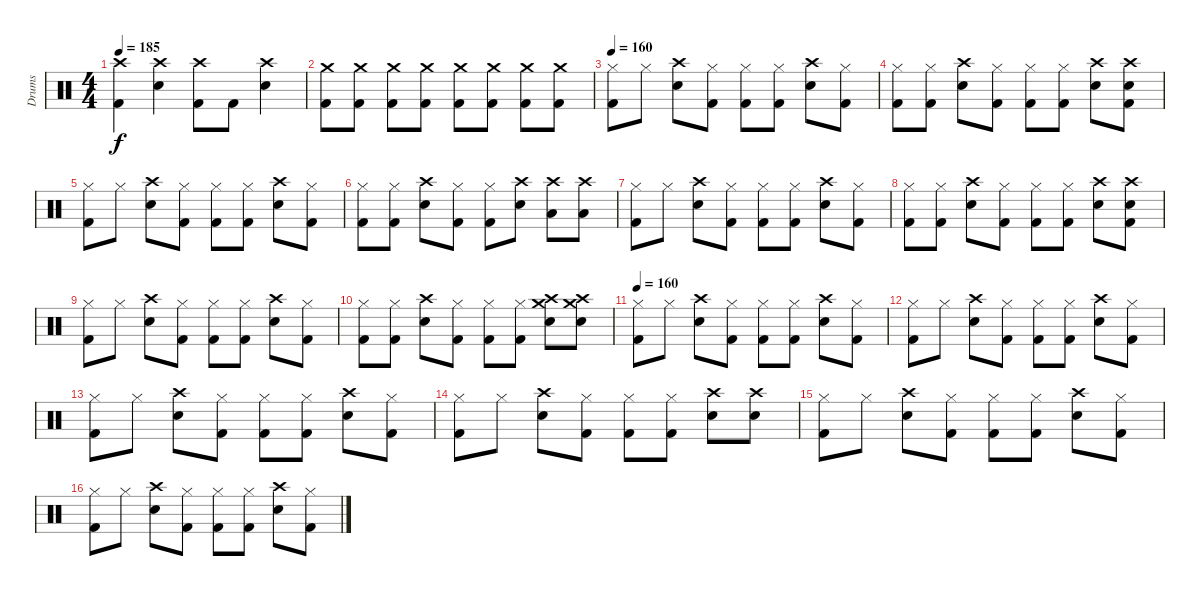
\track ("Drums" "Drums") {instrument percussion}
\staff {score}
\articulation defaults
\ts (4 4)
\tempo 185
\clef neutral
\ks c
("Crash high (hit)" "Kick (hit) 2").4{dy f} ("Crash high (hit)" "Electric Snare (hit)").4 ("Crash high (hit)" "Kick (hit) 2").8 "Kick (hit) 2".8 ("Crash high (hit)" "Electric Snare (hit)").4 |
("Crash medium (hit)" "Kick (hit) 2").8 ("Crash medium (hit)" "Kick (hit) 2").8 ("Crash medium (hit)" "Kick (hit) 2").8 ("Crash medium (hit)" "Kick (hit) 2").8 ("Crash medium (hit)" "Kick (hit) 2").8 ("Crash medium (hit)" "Kick (hit) 2").8 ("Crash medium (hit)" "Kick (hit) 2").8 ("Crash medium (hit)" "Kick (hit) 2").8 |
\tempo 160
("Hi-Hat (closed)" "Kick (hit) 2").8 "Hi-Hat (closed)".8 ("Crash high (hit)" "Electric Snare (hit)").8 ("Hi-Hat (closed)" "Kick (hit) 2").8 ("Hi-Hat (closed)" "Kick (hit) 2").8 ("Hi-Hat (closed)" "Kick (hit) 2").8 ("Crash high (hit)" "Electric Snare (hit)").8 ("Hi-Hat (closed)" "Kick (hit) 2").8 |
("Hi-Hat (closed)" "Kick (hit) 2").8 ("Hi-Hat (closed)" "Kick (hit) 2").8 ("Crash high (hit)" "Electric Snare (hit)").8 ("Hi-Hat (closed)" "Kick (hit) 2").8 ("Hi-Hat (closed)" "Kick (hit) 2").8 ("Hi-Hat (closed)" "Kick (hit) 2").8 ("Crash high (hit)" "Electric Snare (hit)").8 ("Crash high (hit)" "Electric Snare (hit)" "Kick (hit) 2").8 |
("Hi-Hat (closed)" "Kick (hit) 2").8 "Hi-Hat (closed)".8 ("Crash high (hit)" "Electric Snare (hit)").8 ("Hi-Hat (closed)" "Kick (hit) 2").8 ("Hi-Hat (closed)" "Kick (hit) 2").8 ("Hi-Hat (closed)" "Kick (hit) 2").8 ("Crash high (hit)" "Electric Snare (hit)").8 ("Hi-Hat (closed)" "Kick (hit) 2").8 |
("Hi-Hat (closed)" "Kick (hit) 2").8 ("Hi-Hat (closed)" "Kick (hit) 2").8 ("Crash high (hit)" "Electric Snare (hit)").8 ("Hi-Hat (closed)" "Kick (hit) 2").8 ("Hi-Hat (closed)" "Kick (hit) 2").8 ("Crash high (hit)" "Electric Snare (hit)").8 ("Crash high (hit)" "Low Tom (hit)").8 ("Crash high (hit)" "Low Floor Tom (hit)").8 |
("Hi-Hat (closed)" "Kick (hit) 2").8 "Hi-Hat (closed)".8 ("Crash high (hit)" "Electric Snare (hit)").8 ("Hi-Hat (closed)" "Kick (hit) 2").8 ("Hi-Hat (closed)" "Kick (hit) 2").8 ("Hi-Hat (closed)" "Kick (hit) 2").8 ("Crash high (hit)" "Electric Snare (hit)").8 ("Hi-Hat (closed)" "Kick (hit) 2").8 |
("Hi-Hat (closed)" "Kick (hit) 2").8 ("Hi-Hat (closed)" "Kick (hit) 2").8 ("Crash high (hit)" "Electric Snare (hit)").8 ("Hi-Hat (closed)" "Kick (hit) 2").8 ("Hi-Hat (closed)" "Kick (hit) 2").8 ("Hi-Hat (closed)" "Kick (hit) 2").8 ("Crash high (hit)" "Electric Snare (hit)").8 ("Crash high (hit)" "Electric Snare (hit)" "Kick (hit) 2").8 |
("Hi-Hat (closed)" "Kick (hit) 2").8 "Hi-Hat (closed)".8 ("Crash high (hit)" "Electric Snare (hit)").8 ("Hi-Hat (closed)" "Kick (hit) 2").8 ("Hi-Hat (closed)" "Kick (hit) 2").8 ("Hi-Hat (closed)" "Kick (hit) 2").8 ("Crash high (hit)" "Electric Snare (hit)").8 ("Hi-Hat (closed)" "Kick (hit) 2").8 |
("Hi-Hat (closed)" "Kick (hit) 2").8 ("Hi-Hat (closed)" "Kick (hit) 2").8 ("Crash high (hit)" "Electric Snare (hit)").8 ("Hi-Hat (closed)" "Kick (hit) 2").8 ("Hi-Hat (closed)" "Kick (hit) 2").8 ("Hi-Hat (closed)" "Kick (hit) 2").8 ("Crash high (hit)" "Crash medium (hit)" "Electric Snare (hit)").8 ("Crash high (hit)" "Crash medium (hit)" "Electric Snare (hit)").8 |
\tempo 160
("Hi-Hat (closed)" "Kick (hit) 2").8 "Hi-Hat (closed)".8 ("Crash high (hit)" "Electric Snare (hit)").8 ("Hi-Hat (closed)" "Kick (hit) 2").8 ("Hi-Hat (closed)" "Kick (hit) 2").8 ("Hi-Hat (closed)" "Kick (hit) 2").8 ("Crash high (hit)" "Electric Snare (hit)").8 ("Hi-Hat (closed)" "Kick (hit) 2").8 |
("Hi-Hat (closed)" "Kick (hit) 2").8 "Hi-Hat (closed)".8 ("Crash high (hit)" "Electric Snare (hit)").8 ("Hi-Hat (closed)" "Kick (hit) 2").8 ("Hi-Hat (closed)" "Kick (hit) 2").8 ("Hi-Hat (closed)" "Kick (hit) 2").8 ("Crash high (hit)" "Electric Snare (hit)").8 ("Hi-Hat (closed)" "Kick (hit) 2").8 |
("Hi-Hat (closed)" "Kick (hit) 2").8 "Hi-Hat (closed)".8 ("Crash high (hit)" "Electric Snare (hit)").8 ("Hi-Hat (closed)" "Kick (hit) 2").8 ("Hi-Hat (closed)" "Kick (hit) 2").8 ("Hi-Hat (closed)" "Kick (hit) 2").8 ("Crash high (hit)" "Electric Snare (hit)").8 ("Hi-Hat (closed)" "Kick (hit) 2").8 |
("Hi-Hat (closed)" "Kick (hit) 2").8 "Hi-Hat (closed)".8 ("Crash high (hit)" "Electric Snare (hit)").8 ("Hi-Hat (closed)" "Kick (hit) 2").8 ("Hi-Hat (closed)" "Kick (hit) 2").8 ("Hi-Hat (closed)" "Kick (hit) 2").8 ("Crash high (hit)" "Electric Snare (hit)").8 ("Crash high (hit)" "Electric Snare (hit)").8 |
("Hi-Hat (closed)" "Kick (hit) 2").8 "Hi-Hat (closed)".8 ("Crash high (hit)" "Electric Snare (hit)").8 ("Hi-Hat (closed)" "Kick (hit) 2").8 ("Hi-Hat (closed)" "Kick (hit) 2").8 ("Hi-Hat (closed)" "Kick (hit) 2").8 ("Crash high (hit)" "Electric Snare (hit)").8 ("Hi-Hat (closed)" "Kick (hit) 2").8 |
("Hi-Hat (closed)" "Kick (hit) 2").8 "Hi-Hat (closed)".8 ("Crash high (hit)" "Electric Snare (hit)").8 ("Hi-Hat (closed)" "Kick (hit) 2").8 ("Hi-Hat (closed)" "Kick (hit) 2").8 ("Hi-Hat (closed)" "Kick (hit) 2").8 ("Crash high (hit)" "Electric Snare (hit)").8 ("Hi-Hat (closed)" "Kick (hit) 2").8
